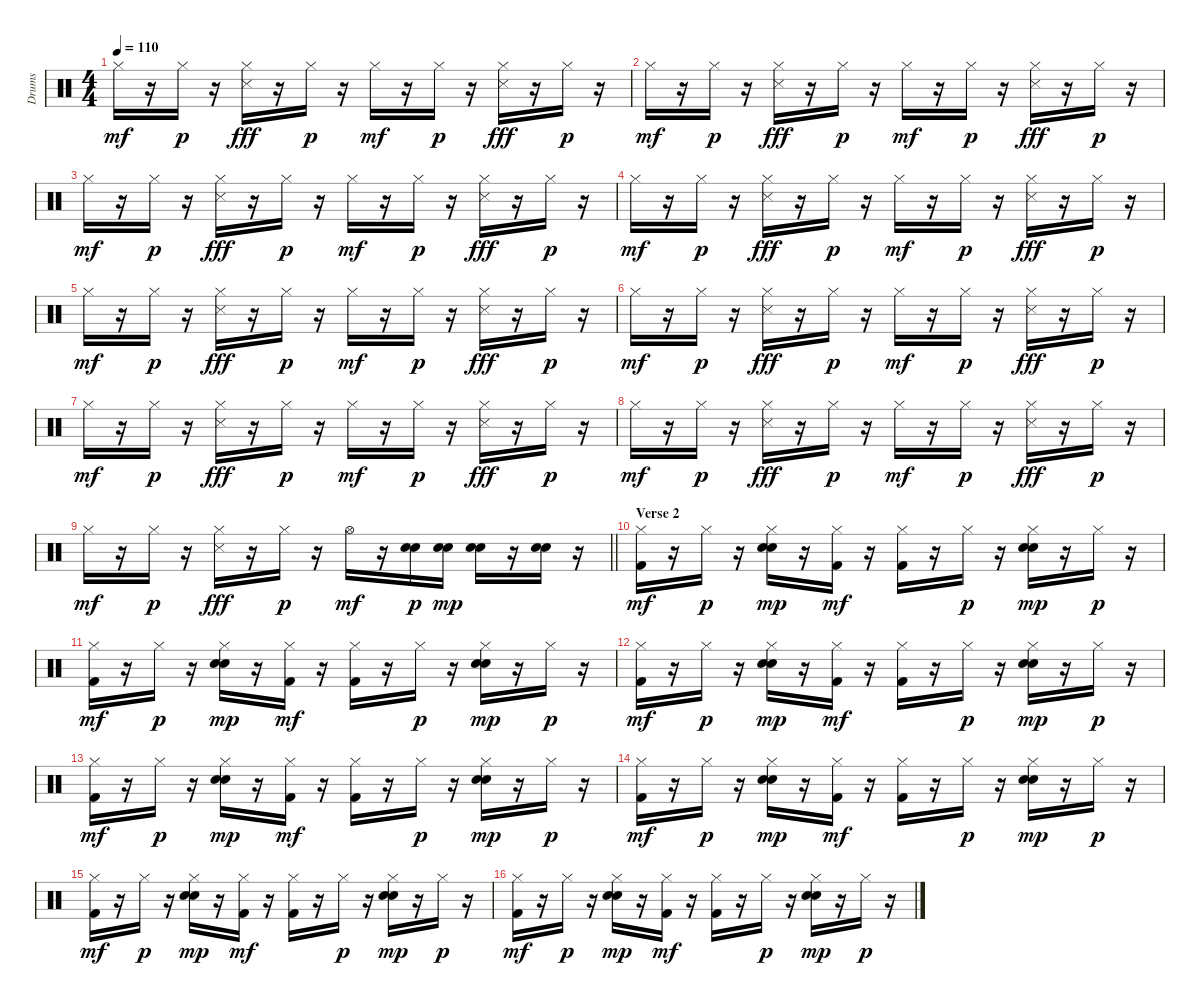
\track ("Drums" "Drums") {instrument percussion}
\staff {score}
\articulation defaults
\ts (4 4)
\tempo 110
\clef neutral
\ks c "Hi-Hat (closed)".16{dy mf}
r.16 "Hi-Hat (closed)".16{dy p} r.16 ("Hi-Hat (closed)" "Snare (side stick) 3").16{dy fff} r.16 "Hi-Hat (closed)".16{dy p} r.16 "Hi-Hat (closed)".16{dy mf} r.16 "Hi-Hat (closed)".16{dy p} r.16 ("Hi-Hat (closed)" "Snare (side stick) 3").16{dy fff} r.16 "Hi-Hat (closed)".16{dy p} r.16 |
"Hi-Hat (closed)".16{dy mf} r.16 "Hi-Hat (closed)".16{dy p} r.16 ("Hi-Hat (closed)" "Snare (side stick) 3").16{dy fff} r.16 "Hi-Hat (closed)".16{dy p} r.16 "Hi-Hat (closed)".16{dy mf} r.16 "Hi-Hat (closed)".16{dy p} r.16 ("Hi-Hat (closed)" "Snare (side stick) 3").16{dy fff} r.16 "Hi-Hat (closed)".16{dy p} r.16 |
"Hi-Hat (closed)".16{dy mf} r.16 "Hi-Hat (closed)".16{dy p} r.16 ("Hi-Hat (closed)" "Snare (side stick) 3").16{dy fff} r.16 "Hi-Hat (closed)".16{dy p} r.16 "Hi-Hat (closed)".16{dy mf} r.16 "Hi-Hat (closed)".16{dy p} r.16 ("Hi-Hat (closed)" "Snare (side stick) 3").16{dy fff} r.16 "Hi-Hat (closed)".16{dy p} r.16 |
"Hi-Hat (closed)".16{dy mf} r.16 "Hi-Hat (closed)".16{dy p} r.16 ("Hi-Hat (closed)" "Snare (side stick) 3").16{dy fff} r.16 "Hi-Hat (closed)".16{dy p} r.16 "Hi-Hat (closed)".16{dy mf} r.16 "Hi-Hat (closed)".16{dy p} r.16 ("Hi-Hat (closed)" "Snare (side stick) 3").16{dy fff} r.16 "Hi-Hat (closed)".16{dy p} r.16 |
"Hi-Hat (closed)".16{dy mf} r.16 "Hi-Hat (closed)".16{dy p} r.16 ("Hi-Hat (closed)" "Snare (side stick) 3").16{dy fff} r.16 "Hi-Hat (closed)".16{dy p} r.16 "Hi-Hat (closed)".16{dy mf} r.16 "Hi-Hat (closed)".16{dy p} r.16 ("Hi-Hat (closed)" "Snare (side stick) 3").16{dy fff} r.16 "Hi-Hat (closed)".16{dy p} r.16 |
"Hi-Hat (closed)".16{dy mf} r.16 "Hi-Hat (closed)".16{dy p} r.16 ("Hi-Hat (closed)" "Snare (side stick) 3").16{dy fff} r.16 "Hi-Hat (closed)".16{dy p} r.16 "Hi-Hat (closed)".16{dy mf} r.16 "Hi-Hat (closed)".16{dy p} r.16 ("Hi-Hat (closed)" "Snare (side stick) 3").16{dy fff} r.16 "Hi-Hat (closed)".16{dy p} r.16 |
"Hi-Hat (closed)".16{dy mf} r.16 "Hi-Hat (closed)".16{dy p} r.16 ("Hi-Hat (closed)" "Snare (side stick) 3").16{dy fff} r.16 "Hi-Hat (closed)".16{dy p} r.16 "Hi-Hat (closed)".16{dy mf} r.16 "Hi-Hat (closed)".16{dy p} r.16 ("Hi-Hat (closed)" "Snare (side stick) 3").16{dy fff} r.16 "Hi-Hat (closed)".16{dy p} r.16 |
"Hi-Hat (closed)".16{dy mf} r.16 "Hi-Hat (closed)".16{dy p} r.16 ("Hi-Hat (closed)" "Snare (side stick) 3").16{dy fff} r.16 "Hi-Hat (closed)".16{dy p} r.16 "Hi-Hat (closed)".16{dy mf} r.16 "Hi-Hat (closed)".16{dy p} r.16 ("Hi-Hat (closed)" "Snare (side stick) 3").16{dy fff} r.16 "Hi-Hat (closed)".16{dy p} r.16 |
\barLineRight lightlight "Hi-Hat (closed)".16{dy mf}
r.16 "Hi-Hat (closed)".16{dy p} r.16 ("Hi-Hat (closed)" "Snare (side stick) 3").16{dy fff} r.16 "Hi-Hat (closed)".16{dy p} r.16 "Hi-Hat (open)".16{dy mf} r.16 ("Electric Snare (hit)" "Snare (hit) 2").16{dy p} ("Electric Snare (hit)" "Snare (hit) 2").16{dy mp} ("Electric Snare (hit)" "Snare (hit) 2").16 r.16 ("Electric Snare (hit)" "Snare (hit) 2").16 r.16 |
\section ("" "Verse 2")
("Hi-Hat (closed)" "Kick (hit) 2").16{dy mf} r.16 "Hi-Hat (closed)".16{dy p} r.16 ("Hi-Hat (closed)" "Electric Snare (hit)" "Snare (hit) 2").16{dy mp} r.16 ("Hi-Hat (closed)" "Kick (hit) 2").16{dy mf} r.16 ("Hi-Hat (closed)" "Kick (hit) 2").16 r.16 "Hi-Hat (closed)".16{dy p} r.16 ("Hi-Hat (closed)" "Electric Snare (hit)" "Snare (hit) 2").16{dy mp} r.16 "Hi-Hat (closed)".16{dy p} r.16 |
("Hi-Hat (closed)" "Kick (hit) 2").16{dy mf} r.16 "Hi-Hat (closed)".16{dy p} r.16 ("Hi-Hat (closed)" "Electric Snare (hit)" "Snare (hit) 2").16{dy mp} r.16 ("Hi-Hat (closed)" "Kick (hit) 2").16{dy mf} r.16 ("Hi-Hat (closed)" "Kick (hit) 2").16 r.16 "Hi-Hat (closed)".16{dy p} r.16 ("Hi-Hat (closed)" "Electric Snare (hit)" "Snare (hit) 2").16{dy mp} r.16 "Hi-Hat (closed)".16{dy p} r.16 |
("Hi-Hat (closed)" "Kick (hit) 2").16{dy mf} r.16 "Hi-Hat (closed)".16{dy p} r.16 ("Hi-Hat (closed)" "Electric Snare (hit)" "Snare (hit) 2").16{dy mp} r.16 ("Hi-Hat (closed)" "Kick (hit) 2").16{dy mf} r.16 ("Hi-Hat (closed)" "Kick (hit) 2").16 r.16 "Hi-Hat (closed)".16{dy p} r.16 ("Hi-Hat (closed)" "Electric Snare (hit)" "Snare (hit) 2").16{dy mp} r.16 "Hi-Hat (closed)".16{dy p} r.16 |
("Hi-Hat (closed)" "Kick (hit) 2").16{dy mf} r.16 "Hi-Hat (closed)".16{dy p} r.16 ("Hi-Hat (closed)" "Electric Snare (hit)" "Snare (hit) 2").16{dy mp} r.16 ("Hi-Hat (closed)" "Kick (hit) 2").16{dy mf} r.16 ("Hi-Hat (closed)" "Kick (hit) 2").16 r.16 "Hi-Hat (closed)".16{dy p} r.16 ("Hi-Hat (closed)" "Electric Snare (hit)" "Snare (hit) 2").16{dy mp} r.16 "Hi-Hat (closed)".16{dy p} r.16 |
("Hi-Hat (closed)" "Kick (hit) 2").16{dy mf} r.16 "Hi-Hat (closed)".16{dy p} r.16 ("Hi-Hat (closed)" "Electric Snare (hit)" "Snare (hit) 2").16{dy mp} r.16 ("Hi-Hat (closed)" "Kick (hit) 2").16{dy mf} r.16 ("Hi-Hat (closed)" "Kick (hit) 2").16 r.16 "Hi-Hat (closed)".16{dy p} r.16 ("Hi-Hat (closed)" "Electric Snare (hit)" "Snare (hit) 2").16{dy mp} r.16 "Hi-Hat (closed)".16{dy p} r.16 |
("Hi-Hat (closed)" "Kick (hit) 2").16{dy mf} r.16 "Hi-Hat (closed)".16{dy p} r.16 ("Hi-Hat (closed)" "Electric Snare (hit)" "Snare (hit) 2").16{dy mp} r.16 ("Hi-Hat (closed)" "Kick (hit) 2").16{dy mf} r.16 ("Hi-Hat (closed)" "Kick (hit) 2").16 r.16 "Hi-Hat (closed)".16{dy p} r.16 ("Hi-Hat (closed)" "Electric Snare (hit)" "Snare (hit) 2").16{dy mp} r.16 "Hi-Hat (closed)".16{dy p} r.16 |
("Hi-Hat (closed)" "Kick (hit) 2").16{dy mf} r.16 "Hi-Hat (closed)".16{dy p} r.16 ("Hi-Hat (closed)" "Electric Snare (hit)" "Snare (hit) 2").16{dy mp} r.16 ("Hi-Hat (closed)" "Kick (hit) 2").16{dy mf} r.16 ("Hi-Hat (closed)" "Kick (hit) 2").16 r.16 "Hi-Hat (closed)".16{dy p} r.16 ("Hi-Hat (closed)" "Electric Snare (hit)" "Snare (hit) 2").16{dy mp} r.16 "Hi-Hat (closed)".16{dy p} r.16
